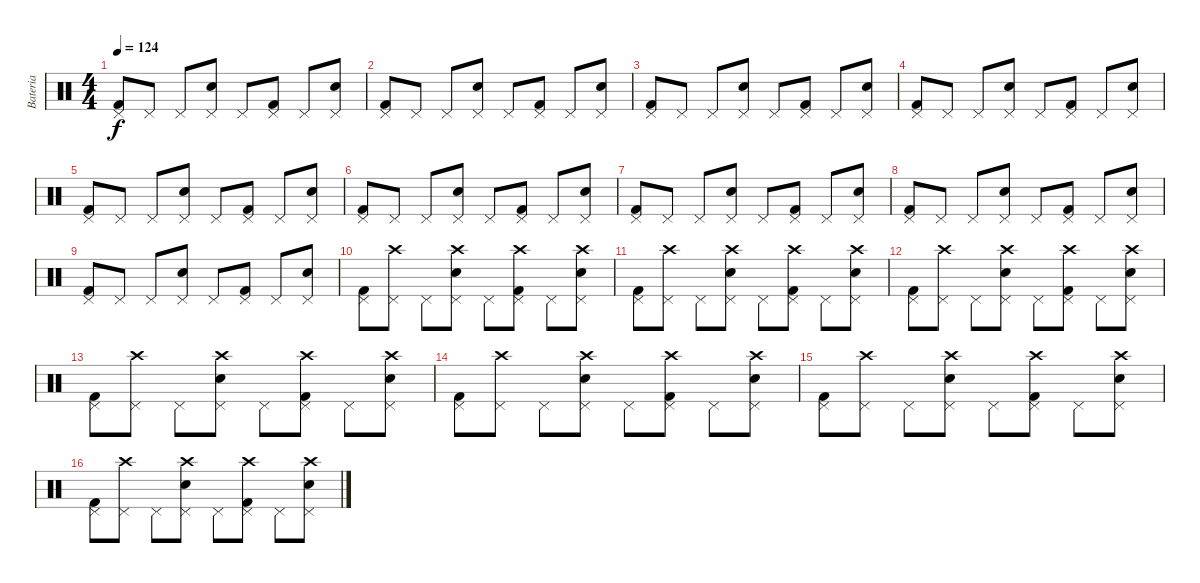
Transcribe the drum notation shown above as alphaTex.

\track ("Bateria" "Bateria") {instrument percussion}
\staff {score}
\articulation defaults
\ts (4 4)
\tempo 124
\clef neutral
\ks c
("Pedal Hi-Hat (hit)" "Kick (hit) 2").8{dy f} "Pedal Hi-Hat (hit)".8 "Pedal Hi-Hat (hit)".8 ("Pedal Hi-Hat (hit)" "Electric Snare (hit)").8 "Pedal Hi-Hat (hit)".8 ("Pedal Hi-Hat (hit)" "Kick (hit) 2").8 "Pedal Hi-Hat (hit)".8 ("Pedal Hi-Hat (hit)" "Electric Snare (hit)").8 |
("Pedal Hi-Hat (hit)" "Kick (hit) 2").8 "Pedal Hi-Hat (hit)".8 "Pedal Hi-Hat (hit)".8 ("Pedal Hi-Hat (hit)" "Electric Snare (hit)").8 "Pedal Hi-Hat (hit)".8 ("Pedal Hi-Hat (hit)" "Kick (hit) 2").8 "Pedal Hi-Hat (hit)".8 ("Pedal Hi-Hat (hit)" "Electric Snare (hit)").8 |
("Pedal Hi-Hat (hit)" "Kick (hit) 2").8 "Pedal Hi-Hat (hit)".8 "Pedal Hi-Hat (hit)".8 ("Pedal Hi-Hat (hit)" "Electric Snare (hit)").8 "Pedal Hi-Hat (hit)".8 ("Pedal Hi-Hat (hit)" "Kick (hit) 2").8 "Pedal Hi-Hat (hit)".8 ("Pedal Hi-Hat (hit)" "Electric Snare (hit)").8 |
("Pedal Hi-Hat (hit)" "Kick (hit) 2").8 "Pedal Hi-Hat (hit)".8 "Pedal Hi-Hat (hit)".8 ("Pedal Hi-Hat (hit)" "Electric Snare (hit)").8 "Pedal Hi-Hat (hit)".8 ("Pedal Hi-Hat (hit)" "Kick (hit) 2").8 "Pedal Hi-Hat (hit)".8 ("Pedal Hi-Hat (hit)" "Electric Snare (hit)").8 |
("Pedal Hi-Hat (hit)" "Kick (hit) 2").8 "Pedal Hi-Hat (hit)".8 "Pedal Hi-Hat (hit)".8 ("Pedal Hi-Hat (hit)" "Electric Snare (hit)").8 "Pedal Hi-Hat (hit)".8 ("Pedal Hi-Hat (hit)" "Kick (hit) 2").8 "Pedal Hi-Hat (hit)".8 ("Pedal Hi-Hat (hit)" "Electric Snare (hit)").8 |
("Pedal Hi-Hat (hit)" "Kick (hit) 2").8 "Pedal Hi-Hat (hit)".8 "Pedal Hi-Hat (hit)".8 ("Pedal Hi-Hat (hit)" "Electric Snare (hit)").8 "Pedal Hi-Hat (hit)".8 ("Pedal Hi-Hat (hit)" "Kick (hit) 2").8 "Pedal Hi-Hat (hit)".8 ("Pedal Hi-Hat (hit)" "Electric Snare (hit)").8 |
("Pedal Hi-Hat (hit)" "Kick (hit) 2").8 "Pedal Hi-Hat (hit)".8 "Pedal Hi-Hat (hit)".8 ("Pedal Hi-Hat (hit)" "Electric Snare (hit)").8 "Pedal Hi-Hat (hit)".8 ("Pedal Hi-Hat (hit)" "Kick (hit) 2").8 "Pedal Hi-Hat (hit)".8 ("Pedal Hi-Hat (hit)" "Electric Snare (hit)").8 |
("Pedal Hi-Hat (hit)" "Kick (hit) 2").8 "Pedal Hi-Hat (hit)".8 "Pedal Hi-Hat (hit)".8 ("Pedal Hi-Hat (hit)" "Electric Snare (hit)").8 "Pedal Hi-Hat (hit)".8 ("Pedal Hi-Hat (hit)" "Kick (hit) 2").8 "Pedal Hi-Hat (hit)".8 ("Pedal Hi-Hat (hit)" "Electric Snare (hit)").8 |
("Pedal Hi-Hat (hit)" "Kick (hit) 2").8 "Pedal Hi-Hat (hit)".8 "Pedal Hi-Hat (hit)".8 ("Pedal Hi-Hat (hit)" "Electric Snare (hit)").8 "Pedal Hi-Hat (hit)".8 ("Pedal Hi-Hat (hit)" "Kick (hit) 2").8 "Pedal Hi-Hat (hit)".8 ("Pedal Hi-Hat (hit)" "Electric Snare (hit)").8 |
("Pedal Hi-Hat (hit)" "Kick (hit) 2").8 ("Pedal Hi-Hat (hit)" "Crash high (hit)").8 "Pedal Hi-Hat (hit)".8 ("Pedal Hi-Hat (hit)" "Electric Snare (hit)" "Crash high (hit)").8 "Pedal Hi-Hat (hit)".8 ("Pedal Hi-Hat (hit)" "Kick (hit) 2" "Crash high (hit)").8 "Pedal Hi-Hat (hit)".8 ("Pedal Hi-Hat (hit)" "Electric Snare (hit)" "Crash high (hit)").8 |
("Pedal Hi-Hat (hit)" "Kick (hit) 2").8 ("Pedal Hi-Hat (hit)" "Crash high (hit)").8 "Pedal Hi-Hat (hit)".8 ("Pedal Hi-Hat (hit)" "Electric Snare (hit)" "Crash high (hit)").8 "Pedal Hi-Hat (hit)".8 ("Pedal Hi-Hat (hit)" "Kick (hit) 2" "Crash high (hit)").8 "Pedal Hi-Hat (hit)".8 ("Pedal Hi-Hat (hit)" "Electric Snare (hit)" "Crash high (hit)").8 |
("Pedal Hi-Hat (hit)" "Kick (hit) 2").8 ("Pedal Hi-Hat (hit)" "Crash high (hit)").8 "Pedal Hi-Hat (hit)".8 ("Pedal Hi-Hat (hit)" "Electric Snare (hit)" "Crash high (hit)").8 "Pedal Hi-Hat (hit)".8 ("Pedal Hi-Hat (hit)" "Kick (hit) 2" "Crash high (hit)").8 "Pedal Hi-Hat (hit)".8 ("Pedal Hi-Hat (hit)" "Electric Snare (hit)" "Crash high (hit)").8 |
("Pedal Hi-Hat (hit)" "Kick (hit) 2").8 ("Pedal Hi-Hat (hit)" "Crash high (hit)").8 "Pedal Hi-Hat (hit)".8 ("Pedal Hi-Hat (hit)" "Electric Snare (hit)" "Crash high (hit)").8 "Pedal Hi-Hat (hit)".8 ("Pedal Hi-Hat (hit)" "Kick (hit) 2" "Crash high (hit)").8 "Pedal Hi-Hat (hit)".8 ("Pedal Hi-Hat (hit)" "Electric Snare (hit)" "Crash high (hit)").8 |
("Pedal Hi-Hat (hit)" "Kick (hit) 2").8 ("Pedal Hi-Hat (hit)" "Crash high (hit)").8 "Pedal Hi-Hat (hit)".8 ("Pedal Hi-Hat (hit)" "Electric Snare (hit)" "Crash high (hit)").8 "Pedal Hi-Hat (hit)".8 ("Pedal Hi-Hat (hit)" "Kick (hit) 2" "Crash high (hit)").8 "Pedal Hi-Hat (hit)".8 ("Pedal Hi-Hat (hit)" "Electric Snare (hit)" "Crash high (hit)").8 |
("Pedal Hi-Hat (hit)" "Kick (hit) 2").8 ("Pedal Hi-Hat (hit)" "Crash high (hit)").8 "Pedal Hi-Hat (hit)".8 ("Pedal Hi-Hat (hit)" "Electric Snare (hit)" "Crash high (hit)").8 "Pedal Hi-Hat (hit)".8 ("Pedal Hi-Hat (hit)" "Kick (hit) 2" "Crash high (hit)").8 "Pedal Hi-Hat (hit)".8 ("Pedal Hi-Hat (hit)" "Electric Snare (hit)" "Crash high (hit)").8 |
("Pedal Hi-Hat (hit)" "Kick (hit) 2").8 ("Pedal Hi-Hat (hit)" "Crash high (hit)").8 "Pedal Hi-Hat (hit)".8 ("Pedal Hi-Hat (hit)" "Electric Snare (hit)" "Crash high (hit)").8 "Pedal Hi-Hat (hit)".8 ("Pedal Hi-Hat (hit)" "Kick (hit) 2" "Crash high (hit)").8 "Pedal Hi-Hat (hit)".8 ("Pedal Hi-Hat (hit)" "Electric Snare (hit)" "Crash high (hit)").8
